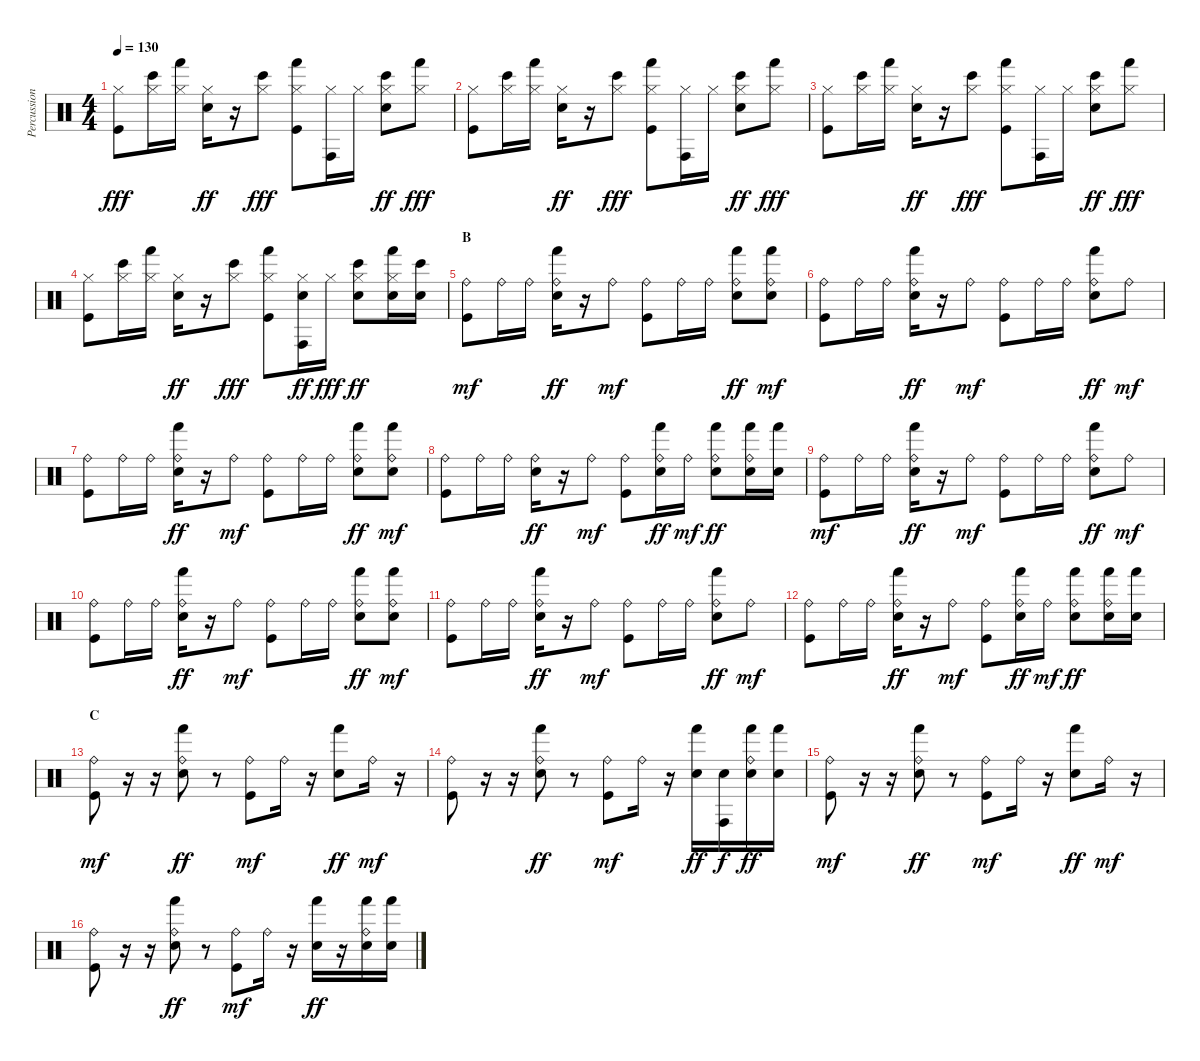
\track ("Percussion" "Percussion") {instrument percussion}
\staff {score}
\articulation defaults
\ts (4 4)
\tempo 130
\clef neutral
\ks c
("Hi-Hat (closed)" "Kick (hit)").8{dy fff} ("Hi-Hat (closed)" "Bongo High (hit)").16 ("Hi-Hat (closed)" "Hand (hit)").16 ("Hi-Hat (closed)" "Electric Snare (hit)").16{dy ff} r.16 ("Hi-Hat (closed)" "Bongo High (hit)").8{dy fff} ("Hi-Hat (closed)" "Hand (hit)" "Kick (hit)").8 ("Hi-Hat (closed)" "Conga high (hit)").16 "Hi-Hat (closed)".16 ("Hi-Hat (closed)" "Bongo High (hit)" "Electric Snare (hit)").8{dy ff} ("Hi-Hat (closed)" "Hand (hit)").8{dy fff} |
("Hi-Hat (closed)" "Kick (hit)").8 ("Hi-Hat (closed)" "Bongo High (hit)").16 ("Hi-Hat (closed)" "Hand (hit)").16 ("Hi-Hat (closed)" "Electric Snare (hit)").16{dy ff} r.16 ("Hi-Hat (closed)" "Bongo High (hit)").8{dy fff} ("Hi-Hat (closed)" "Hand (hit)" "Kick (hit)").8 ("Hi-Hat (closed)" "Conga high (hit)").16 "Hi-Hat (closed)".16 ("Hi-Hat (closed)" "Bongo High (hit)" "Electric Snare (hit)").8{dy ff} ("Hi-Hat (closed)" "Hand (hit)").8{dy fff} |
("Hi-Hat (closed)" "Kick (hit)").8 ("Hi-Hat (closed)" "Bongo High (hit)").16 ("Hi-Hat (closed)" "Hand (hit)").16 ("Hi-Hat (closed)" "Electric Snare (hit)").16{dy ff} r.16 ("Hi-Hat (closed)" "Bongo High (hit)").8{dy fff} ("Hi-Hat (closed)" "Hand (hit)" "Kick (hit)").8 ("Hi-Hat (closed)" "Conga high (hit)").16 "Hi-Hat (closed)".16 ("Hi-Hat (closed)" "Bongo High (hit)" "Electric Snare (hit)").8{dy ff} ("Hi-Hat (closed)" "Hand (hit)").8{dy fff} |
("Hi-Hat (closed)" "Kick (hit)").8 ("Hi-Hat (closed)" "Bongo High (hit)").16 ("Hi-Hat (closed)" "Hand (hit)").16 ("Hi-Hat (closed)" "Electric Snare (hit)").16{dy ff} r.16 ("Hi-Hat (closed)" "Bongo High (hit)").8{dy fff} ("Hi-Hat (closed)" "Hand (hit)" "Kick (hit)").8 ("Hi-Hat (closed)" "Conga high (hit)" "Electric Snare (hit)").16{dy ff} "Hi-Hat (closed)".16{dy fff} ("Hi-Hat (closed)" "Bongo High (hit)" "Electric Snare (hit)").8{dy ff} ("Hi-Hat (closed)" "Hand (hit)" "Electric Snare (hit)").16 ("Bongo High (hit)" "Electric Snare (hit)").16 |
\section ("" "B")
("Ride (bell)" "Kick (hit)").8{dy mf} "Ride (bell)".16 "Ride (bell)".16 ("Ride (bell)" "Hand (hit)" "Electric Snare (hit)").16{dy ff} r.16 "Ride (bell)".8{dy mf} ("Ride (bell)" "Kick (hit)").8 "Ride (bell)".16 "Ride (bell)".16 ("Ride (bell)" "Hand (hit)" "Electric Snare (hit)").8{dy ff} ("Ride (bell)" "Hand (hit)" "Electric Snare (hit)").8{dy mf} |
("Ride (bell)" "Kick (hit)").8 "Ride (bell)".16 "Ride (bell)".16 ("Ride (bell)" "Hand (hit)" "Electric Snare (hit)").16{dy ff} r.16 "Ride (bell)".8{dy mf} ("Ride (bell)" "Kick (hit)").8 "Ride (bell)".16 "Ride (bell)".16 ("Ride (bell)" "Hand (hit)" "Electric Snare (hit)").8{dy ff} "Ride (bell)".8{dy mf} |
("Ride (bell)" "Kick (hit)").8 "Ride (bell)".16 "Ride (bell)".16 ("Ride (bell)" "Hand (hit)" "Electric Snare (hit)").16{dy ff} r.16 "Ride (bell)".8{dy mf} ("Ride (bell)" "Kick (hit)").8 "Ride (bell)".16 "Ride (bell)".16 ("Ride (bell)" "Hand (hit)" "Electric Snare (hit)").8{dy ff} ("Ride (bell)" "Hand (hit)" "Electric Snare (hit)").8{dy mf} |
("Ride (bell)" "Kick (hit)").8 "Ride (bell)".16 "Ride (bell)".16 ("Ride (bell)" "Electric Snare (hit)").16{dy ff} r.16 "Ride (bell)".8{dy mf} ("Ride (bell)" "Kick (hit)").8 ("Ride (bell)" "Hand (hit)" "Electric Snare (hit)").16{dy ff} "Ride (bell)".16{dy mf} ("Ride (bell)" "Hand (hit)" "Electric Snare (hit)").8{dy ff} ("Ride (bell)" "Hand (hit)" "Electric Snare (hit)").16 ("Hand (hit)" "Electric Snare (hit)").16 |
("Ride (bell)" "Kick (hit)").8{dy mf} "Ride (bell)".16 "Ride (bell)".16 ("Ride (bell)" "Hand (hit)" "Electric Snare (hit)").16{dy ff} r.16 "Ride (bell)".8{dy mf} ("Ride (bell)" "Kick (hit)").8 "Ride (bell)".16 "Ride (bell)".16 ("Ride (bell)" "Hand (hit)" "Electric Snare (hit)").8{dy ff} "Ride (bell)".8{dy mf} |
("Ride (bell)" "Kick (hit)").8 "Ride (bell)".16 "Ride (bell)".16 ("Ride (bell)" "Hand (hit)" "Electric Snare (hit)").16{dy ff} r.16 "Ride (bell)".8{dy mf} ("Ride (bell)" "Kick (hit)").8 "Ride (bell)".16 "Ride (bell)".16 ("Ride (bell)" "Hand (hit)" "Electric Snare (hit)").8{dy ff} ("Ride (bell)" "Hand (hit)" "Electric Snare (hit)").8{dy mf} |
("Ride (bell)" "Kick (hit)").8 "Ride (bell)".16 "Ride (bell)".16 ("Ride (bell)" "Hand (hit)" "Electric Snare (hit)").16{dy ff} r.16 "Ride (bell)".8{dy mf} ("Ride (bell)" "Kick (hit)").8 "Ride (bell)".16 "Ride (bell)".16 ("Ride (bell)" "Hand (hit)" "Electric Snare (hit)").8{dy ff} "Ride (bell)".8{dy mf} |
("Ride (bell)" "Kick (hit)").8 "Ride (bell)".16 "Ride (bell)".16 ("Ride (bell)" "Hand (hit)" "Electric Snare (hit)").16{dy ff} r.16 "Ride (bell)".8{dy mf} ("Ride (bell)" "Kick (hit)").8 ("Ride (bell)" "Hand (hit)" "Electric Snare (hit)").16{dy ff} "Ride (bell)".16{dy mf} ("Ride (bell)" "Hand (hit)" "Electric Snare (hit)").8{dy ff} ("Ride (bell)" "Hand (hit)" "Electric Snare (hit)").16 ("Hand (hit)" "Electric Snare (hit)").16 |
\section ("" "C")
("Ride (bell)" "Kick (hit)").8{dy mf} r.16 r.16 ("Ride (bell)" "Hand (hit)" "Electric Snare (hit)").8{dy ff} r.8 ("Ride (bell)" "Kick (hit)").8{dy mf} "Ride (bell)".16 r.16 ("Hand (hit)" "Electric Snare (hit)").8{dy ff} "Ride (bell)".16{dy mf} r.16 |
("Ride (bell)" "Kick (hit)").8 r.16 r.16 ("Ride (bell)" "Hand (hit)" "Electric Snare (hit)").8{dy ff} r.8 ("Ride (bell)" "Kick (hit)").8{dy mf} "Ride (bell)".16 r.16 ("Hand (hit)" "Electric Snare (hit)").16{dy ff} ("Conga high (hit)" "Electric Snare (hit)").16{dy f} ("Ride (bell)" "Hand (hit)" "Electric Snare (hit)").16{dy ff} ("Hand (hit)" "Electric Snare (hit)").16 |
("Ride (bell)" "Kick (hit)").8{dy mf} r.16 r.16 ("Ride (bell)" "Hand (hit)" "Electric Snare (hit)").8{dy ff} r.8 ("Ride (bell)" "Kick (hit)").8{dy mf} "Ride (bell)".16 r.16 ("Hand (hit)" "Electric Snare (hit)").8{dy ff} "Ride (bell)".16{dy mf} r.16 |
("Ride (bell)" "Kick (hit)").8 r.16 r.16 ("Ride (bell)" "Hand (hit)" "Electric Snare (hit)").8{dy ff} r.8 ("Ride (bell)" "Kick (hit)").8{dy mf} "Ride (bell)".16 r.16 ("Hand (hit)" "Electric Snare (hit)").16{dy ff} r.16 ("Ride (bell)" "Hand (hit)" "Electric Snare (hit)").16 ("Hand (hit)" "Electric Snare (hit)").16
